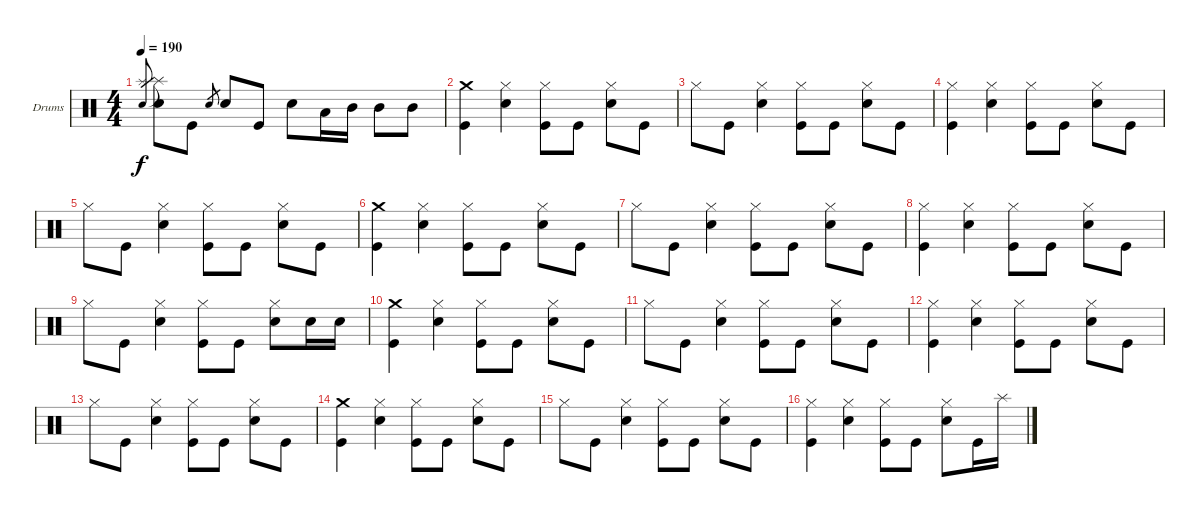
\bracketExtendMode groupsimilarinstruments
\firstSystemTrackNameOrientation horizontal
\otherSystemsTrackNameOrientation horizontal
\track ("Drums" "Drums") {instrument percussion}
\staff {score}
\articulation defaults
\ts (4 4)
\tempo 190
\clef neutral
\ks c
("Snare (hit) 2" "Splash (hit)"{t}).8{gr dy f} ("Splash (hit)"{t} "Snare (hit) 2").8 "Kick (hit)".8 "Snare (hit) 2".8{gr} "Snare (hit) 2".8 "Kick (hit)".8 "Snare (hit) 2".8 "Low Tom (hit)".16 "Mid Tom (hit)".16 "Mid Tom (hit)".8 "Mid Tom (hit)".8 |
("Crash medium (hit)" "Kick (hit)").4 ("Hi-Hat (closed)" "Snare (hit) 2").4 ("Hi-Hat (closed)" "Kick (hit)").8 "Kick (hit)".8 ("Hi-Hat (closed)" "Snare (hit) 2").8 "Kick (hit)".8 |
"Hi-Hat (closed)".8 "Kick (hit)".8 ("Hi-Hat (closed)" "Snare (hit) 2").4 ("Hi-Hat (closed)" "Kick (hit)").8 "Kick (hit)".8 ("Hi-Hat (closed)" "Snare (hit) 2").8 "Kick (hit)".8 |
("Kick (hit)" "Hi-Hat (closed)").4 ("Hi-Hat (closed)" "Snare (hit) 2").4 ("Hi-Hat (closed)" "Kick (hit)").8 "Kick (hit)".8 ("Hi-Hat (closed)" "Snare (hit) 2").8 "Kick (hit)".8 |
"Hi-Hat (closed)".8 "Kick (hit)".8 ("Hi-Hat (closed)" "Snare (hit) 2").4 ("Hi-Hat (closed)" "Kick (hit)").8 "Kick (hit)".8 ("Hi-Hat (closed)" "Snare (hit) 2").8 "Kick (hit)".8 |
("Crash medium (hit)" "Kick (hit)").4 ("Hi-Hat (closed)" "Snare (hit) 2").4 ("Hi-Hat (closed)" "Kick (hit)").8 "Kick (hit)".8 ("Hi-Hat (closed)" "Snare (hit) 2").8 "Kick (hit)".8 |
"Hi-Hat (closed)".8 "Kick (hit)".8 ("Hi-Hat (closed)" "Snare (hit) 2").4 ("Hi-Hat (closed)" "Kick (hit)").8 "Kick (hit)".8 ("Hi-Hat (closed)" "Snare (hit) 2").8 "Kick (hit)".8 |
("Kick (hit)" "Hi-Hat (closed)").4 ("Hi-Hat (closed)" "Snare (hit) 2").4 ("Hi-Hat (closed)" "Kick (hit)").8 "Kick (hit)".8 ("Hi-Hat (closed)" "Snare (hit) 2").8 "Kick (hit)".8 |
"Hi-Hat (closed)".8 "Kick (hit)".8 ("Hi-Hat (closed)" "Snare (hit) 2").4 ("Hi-Hat (closed)" "Kick (hit)").8 "Kick (hit)".8 ("Hi-Hat (closed)" "Snare (hit) 2").8 "Snare (hit) 2".16 "Snare (hit) 2".16 |
("Crash medium (hit)" "Kick (hit)").4 ("Hi-Hat (closed)" "Snare (hit) 2").4 ("Hi-Hat (closed)" "Kick (hit)").8 "Kick (hit)".8 ("Hi-Hat (closed)" "Snare (hit) 2").8 "Kick (hit)".8 |
"Hi-Hat (closed)".8 "Kick (hit)".8 ("Hi-Hat (closed)" "Snare (hit) 2").4 ("Hi-Hat (closed)" "Kick (hit)").8 "Kick (hit)".8 ("Hi-Hat (closed)" "Snare (hit) 2").8 "Kick (hit)".8 |
("Kick (hit)" "Hi-Hat (closed)").4 ("Hi-Hat (closed)" "Snare (hit) 2").4 ("Hi-Hat (closed)" "Kick (hit)").8 "Kick (hit)".8 ("Hi-Hat (closed)" "Snare (hit) 2").8 "Kick (hit)".8 |
"Hi-Hat (closed)".8 "Kick (hit)".8 ("Hi-Hat (closed)" "Snare (hit) 2").4 ("Hi-Hat (closed)" "Kick (hit)").8 "Kick (hit)".8 ("Hi-Hat (closed)" "Snare (hit) 2").8 "Kick (hit)".8 |
("Crash medium (hit)" "Kick (hit)").4 ("Hi-Hat (closed)" "Snare (hit) 2").4 ("Hi-Hat (closed)" "Kick (hit)").8 "Kick (hit)".8 ("Hi-Hat (closed)" "Snare (hit) 2").8 "Kick (hit)".8 |
"Hi-Hat (closed)".8 "Kick (hit)".8 ("Hi-Hat (closed)" "Snare (hit) 2").4 ("Hi-Hat (closed)" "Kick (hit)").8 "Kick (hit)".8 ("Hi-Hat (closed)" "Snare (hit) 2").8 "Kick (hit)".8 |
("Kick (hit)" "Hi-Hat (closed)").4 ("Hi-Hat (closed)" "Snare (hit) 2").4 ("Hi-Hat (closed)" "Kick (hit)").8 "Kick (hit)".8 ("Hi-Hat (closed)" "Snare (hit) 2").8 "Kick (hit)".16 "Splash (hit)".16
